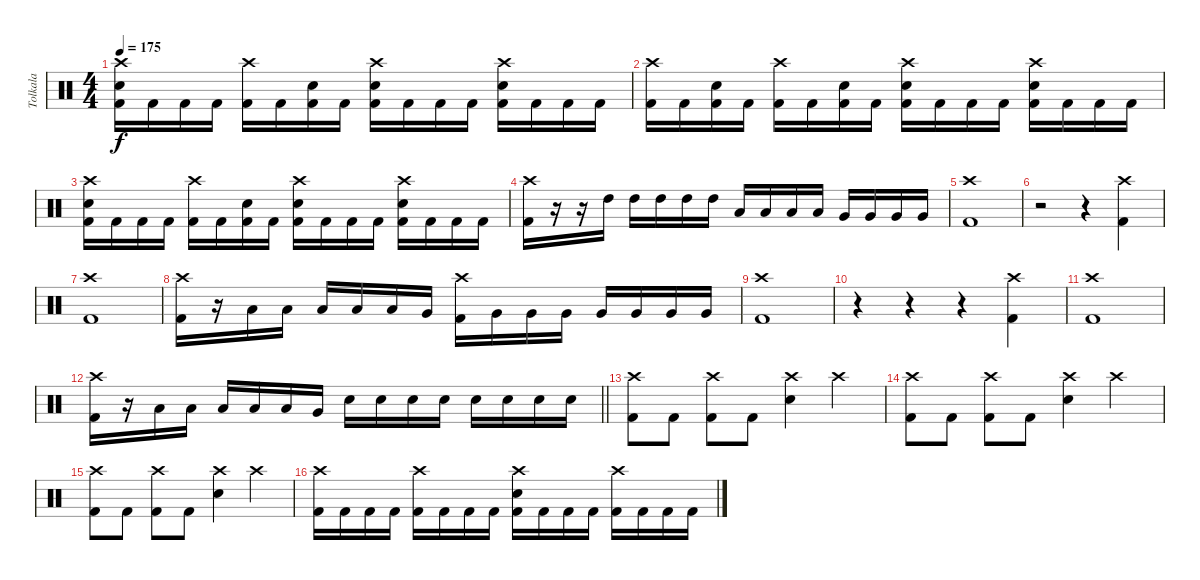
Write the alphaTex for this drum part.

\track ("Tolkala" "Tolkala") {instrument percussion}
\staff {score}
\articulation defaults
\ts (4 4)
\tempo 175
\clef neutral
\ks c
("Crash high (hit)" "Electric Snare (hit)" "Kick (hit) 2").16{dy f} "Kick (hit) 2".16 "Kick (hit) 2".16 "Kick (hit) 2".16 ("Crash high (hit)" "Kick (hit) 2").16 "Kick (hit) 2".16 ("Electric Snare (hit)" "Kick (hit) 2").16 "Kick (hit) 2".16 ("Crash high (hit)" "Electric Snare (hit)" "Kick (hit) 2").16 "Kick (hit) 2".16 "Kick (hit) 2".16 "Kick (hit) 2".16 ("Crash high (hit)" "Electric Snare (hit)" "Kick (hit) 2").16 "Kick (hit) 2".16 "Kick (hit) 2".16 "Kick (hit) 2".16 |
("Crash high (hit)" "Kick (hit) 2").16 "Kick (hit) 2".16 ("Electric Snare (hit)" "Kick (hit) 2").16 "Kick (hit) 2".16 ("Crash high (hit)" "Kick (hit) 2").16 "Kick (hit) 2".16 ("Electric Snare (hit)" "Kick (hit) 2").16 "Kick (hit) 2".16 ("Crash high (hit)" "Electric Snare (hit)" "Kick (hit) 2").16 "Kick (hit) 2".16 "Kick (hit) 2".16 "Kick (hit) 2".16 ("Crash high (hit)" "Electric Snare (hit)" "Kick (hit) 2").16 "Kick (hit) 2".16 "Kick (hit) 2".16 "Kick (hit) 2".16 |
("Crash high (hit)" "Electric Snare (hit)" "Kick (hit) 2").16 "Kick (hit) 2".16 "Kick (hit) 2".16 "Kick (hit) 2".16 ("Crash high (hit)" "Kick (hit) 2").16 "Kick (hit) 2".16 ("Electric Snare (hit)" "Kick (hit) 2").16 "Kick (hit) 2".16 ("Crash high (hit)" "Electric Snare (hit)" "Kick (hit) 2").16 "Kick (hit) 2".16 "Kick (hit) 2".16 "Kick (hit) 2".16 ("Crash high (hit)" "Electric Snare (hit)" "Kick (hit) 2").16 "Kick (hit) 2".16 "Kick (hit) 2".16 "Kick (hit) 2".16 |
("Crash high (hit)" "Kick (hit) 2").16 r.16 r.16 "High Tom (hit)".16 "High Tom (hit)".16 "High Tom (hit)".16 "High Tom (hit)".16 "High Tom (hit)".16 "Low Tom (hit)".16 "Low Tom (hit)".16 "Low Tom (hit)".16 "Low Tom (hit)".16 "Very Low Tom (hit)".16 "Very Low Tom (hit)".16 "Very Low Tom (hit)".16 "Very Low Tom (hit)".16 |
("Crash high (hit)" "Kick (hit) 2").1 |
r.2 r.4 ("Crash high (hit)" "Kick (hit) 2").4 |
("Crash high (hit)" "Kick (hit) 2").1 |
("Crash high (hit)" "Kick (hit) 2").16 r.16 "Low Tom (hit)".16 "Low Tom (hit)".16 "Low Tom (hit)".16 "Low Tom (hit)".16 "Low Tom (hit)".16 "Very Low Tom (hit)".16 ("Crash high (hit)" "Kick (hit) 2").16 "Very Low Tom (hit)".16 "Very Low Tom (hit)".16 "Very Low Tom (hit)".16 "Very Low Tom (hit)".16 "Very Low Tom (hit)".16 "Very Low Tom (hit)".16 "Very Low Tom (hit)".16 |
("Crash high (hit)" "Kick (hit) 2").1 |
r.4 r.4 r.4 ("Crash high (hit)" "Kick (hit) 2").4 |
("Crash high (hit)" "Kick (hit) 2").1 |
\barLineRight lightlight
("Crash high (hit)" "Kick (hit) 2").16 r.16 "Low Tom (hit)".16 "Low Tom (hit)".16 "Low Tom (hit)".16 "Low Tom (hit)".16 "Low Tom (hit)".16 "Very Low Tom (hit)".16 "Electric Snare (hit)".16 "Electric Snare (hit)".16 "Electric Snare (hit)".16 "Electric Snare (hit)".16 "Electric Snare (hit)".16 "Electric Snare (hit)".16 "Electric Snare (hit)".16 "Electric Snare (hit)".16 |
\section ("" "")
("Crash high (hit)" "Kick (hit) 2").8 "Kick (hit) 2".8 ("Crash high (hit)" "Kick (hit) 2").8 "Kick (hit) 2".8 ("Crash high (hit)" "Electric Snare (hit)").4 "Crash high (hit)".4 |
("Crash high (hit)" "Kick (hit) 2").8 "Kick (hit) 2".8 ("Crash high (hit)" "Kick (hit) 2").8 "Kick (hit) 2".8 ("Crash high (hit)" "Electric Snare (hit)").4 "Crash high (hit)".4 |
("Crash high (hit)" "Kick (hit) 2").8 "Kick (hit) 2".8 ("Crash high (hit)" "Kick (hit) 2").8 "Kick (hit) 2".8 ("Crash high (hit)" "Electric Snare (hit)").4 "Crash high (hit)".4 |
("Crash high (hit)" "Kick (hit) 2").16 "Kick (hit) 2".16 "Kick (hit) 2".16 "Kick (hit) 2".16 ("Crash high (hit)" "Kick (hit) 2").16 "Kick (hit) 2".16 "Kick (hit) 2".16 "Kick (hit) 2".16 ("Crash high (hit)" "Electric Snare (hit)" "Kick (hit) 2").16 "Kick (hit) 2".16 "Kick (hit) 2".16 "Kick (hit) 2".16 ("Crash high (hit)" "Kick (hit) 2").16 "Kick (hit) 2".16 "Kick (hit) 2".16 "Kick (hit) 2".16
